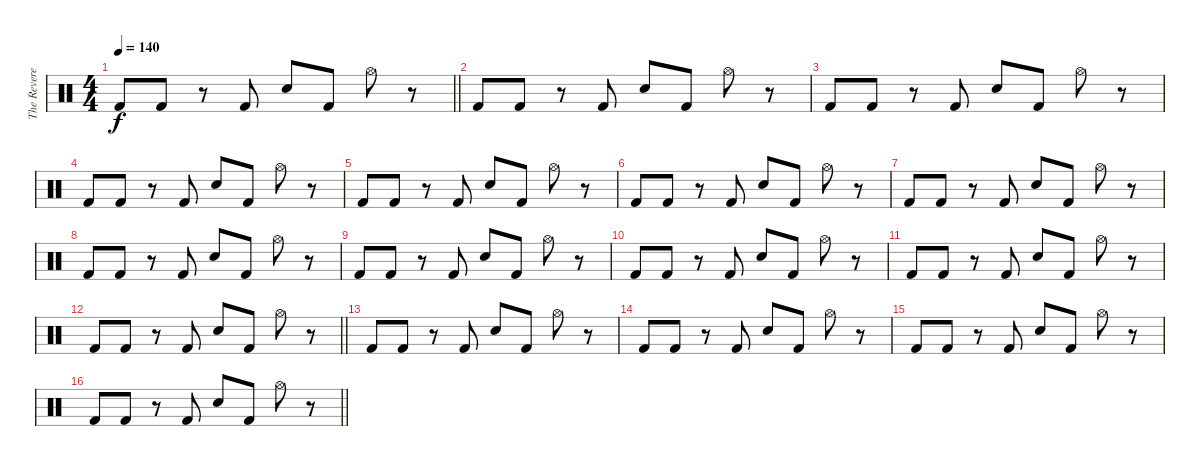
\track ("The Reverend" "The Revere") {instrument percussion}
\staff {score}
\articulation defaults
\ts (4 4)
\tempo 140
\clef neutral
\barLineRight lightlight
\ks c "Kick (hit) 2".8{dy f} "Kick (hit) 2".8
r.8 "Kick (hit) 2".8 "Snare (hit) 2".8 "Kick (hit) 2".8 "Hi-Hat (open)".8 r.8 |
\section ("" "")
"Kick (hit) 2".8 "Kick (hit) 2".8 r.8 "Kick (hit) 2".8 "Snare (hit) 2".8 "Kick (hit) 2".8 "Hi-Hat (open)".8 r.8 |
"Kick (hit) 2".8 "Kick (hit) 2".8 r.8 "Kick (hit) 2".8 "Snare (hit) 2".8 "Kick (hit) 2".8 "Hi-Hat (open)".8 r.8 |
"Kick (hit) 2".8 "Kick (hit) 2".8 r.8 "Kick (hit) 2".8 "Snare (hit) 2".8 "Kick (hit) 2".8 "Hi-Hat (open)".8 r.8 |
"Kick (hit) 2".8 "Kick (hit) 2".8 r.8 "Kick (hit) 2".8 "Snare (hit) 2".8 "Kick (hit) 2".8 "Hi-Hat (open)".8 r.8 |
"Kick (hit) 2".8 "Kick (hit) 2".8 r.8 "Kick (hit) 2".8 "Snare (hit) 2".8 "Kick (hit) 2".8 "Hi-Hat (open)".8 r.8 |
"Kick (hit) 2".8 "Kick (hit) 2".8 r.8 "Kick (hit) 2".8 "Snare (hit) 2".8 "Kick (hit) 2".8 "Hi-Hat (open)".8 r.8 |
"Kick (hit) 2".8 "Kick (hit) 2".8 r.8 "Kick (hit) 2".8 "Snare (hit) 2".8 "Kick (hit) 2".8 "Hi-Hat (open)".8 r.8 |
"Kick (hit) 2".8 "Kick (hit) 2".8 r.8 "Kick (hit) 2".8 "Snare (hit) 2".8 "Kick (hit) 2".8 "Hi-Hat (open)".8 r.8 |
"Kick (hit) 2".8 "Kick (hit) 2".8 r.8 "Kick (hit) 2".8 "Snare (hit) 2".8 "Kick (hit) 2".8 "Hi-Hat (open)".8 r.8 |
"Kick (hit) 2".8 "Kick (hit) 2".8 r.8 "Kick (hit) 2".8 "Snare (hit) 2".8 "Kick (hit) 2".8 "Hi-Hat (open)".8 r.8 |
\barLineRight lightlight "Kick (hit) 2".8 "Kick (hit) 2".8
r.8 "Kick (hit) 2".8 "Snare (hit) 2".8 "Kick (hit) 2".8 "Hi-Hat (open)".8 r.8 |
\section ("" "")
"Kick (hit) 2".8 "Kick (hit) 2".8 r.8 "Kick (hit) 2".8 "Snare (hit) 2".8 "Kick (hit) 2".8 "Hi-Hat (open)".8 r.8 |
"Kick (hit) 2".8 "Kick (hit) 2".8 r.8 "Kick (hit) 2".8 "Snare (hit) 2".8 "Kick (hit) 2".8 "Hi-Hat (open)".8 r.8 |
"Kick (hit) 2".8 "Kick (hit) 2".8 r.8 "Kick (hit) 2".8 "Snare (hit) 2".8 "Kick (hit) 2".8 "Hi-Hat (open)".8 r.8 |
\barLineRight lightlight "Kick (hit) 2".8 "Kick (hit) 2".8
r.8 "Kick (hit) 2".8 "Snare (hit) 2".8 "Kick (hit) 2".8 "Hi-Hat (open)".8 r.8
